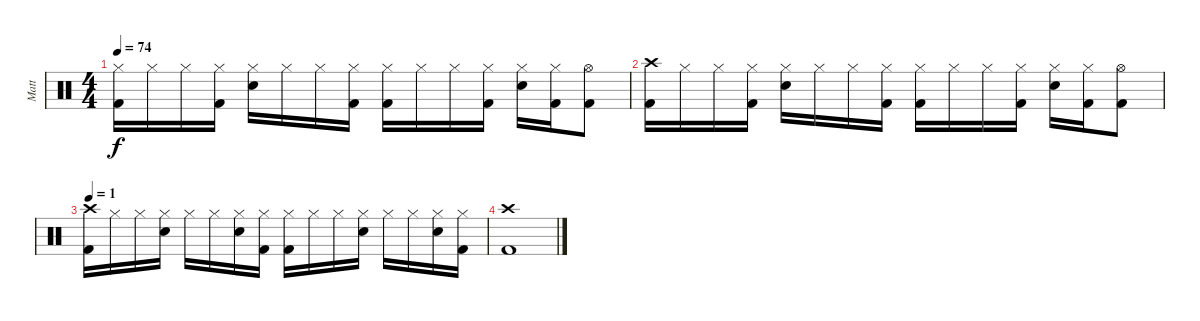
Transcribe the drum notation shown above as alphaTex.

\track ("Matt" "Matt") {instrument percussion}
\staff {score}
\articulation defaults
\ts (4 4)
\tempo 74
\clef neutral
\ks c
("Hi-Hat (closed)" "Kick (hit) 2").16{dy f} "Hi-Hat (closed)".16 "Hi-Hat (closed)".16 ("Hi-Hat (closed)" "Kick (hit) 2").16 ("Hi-Hat (closed)" "Electric Snare (hit)").16 "Hi-Hat (closed)".16 "Hi-Hat (closed)".16 ("Hi-Hat (closed)" "Kick (hit) 2").16 ("Hi-Hat (closed)" "Kick (hit) 2").16 "Hi-Hat (closed)".16 "Hi-Hat (closed)".16 ("Hi-Hat (closed)" "Kick (hit) 2").16 ("Hi-Hat (closed)" "Electric Snare (hit)").16 ("Hi-Hat (closed)" "Kick (hit) 2").16 ("Hi-Hat (open)" "Kick (hit) 2").8 |
("Crash high (hit)" "Kick (hit) 2").16 "Hi-Hat (closed)".16 "Hi-Hat (closed)".16 ("Hi-Hat (closed)" "Kick (hit) 2").16 ("Hi-Hat (closed)" "Electric Snare (hit)").16 "Hi-Hat (closed)".16 "Hi-Hat (closed)".16 ("Hi-Hat (closed)" "Kick (hit) 2").16 ("Hi-Hat (closed)" "Kick (hit) 2").16 "Hi-Hat (closed)".16 "Hi-Hat (closed)".16 ("Hi-Hat (closed)" "Kick (hit) 2").16 ("Hi-Hat (closed)" "Electric Snare (hit)").16 ("Hi-Hat (closed)" "Kick (hit) 2").16 ("Hi-Hat (open)" "Kick (hit) 2").8 |
\tempo 1
("Crash high (hit)" "Kick (hit) 2").16 "Hi-Hat (closed)".16 "Hi-Hat (closed)".16 ("Hi-Hat (closed)" "Electric Snare (hit)").16 "Hi-Hat (closed)".16 "Hi-Hat (closed)".16 ("Hi-Hat (closed)" "Electric Snare (hit)").16 ("Hi-Hat (closed)" "Kick (hit) 2").16 ("Hi-Hat (closed)" "Kick (hit) 2").16 "Hi-Hat (closed)".16 "Hi-Hat (closed)".16 ("Hi-Hat (closed)" "Electric Snare (hit)").16 "Hi-Hat (closed)".16 "Hi-Hat (closed)".16 ("Hi-Hat (closed)" "Electric Snare (hit)").16 ("Hi-Hat (closed)" "Kick (hit) 2").16 |
("Crash high (hit)" "Kick (hit) 2").1
